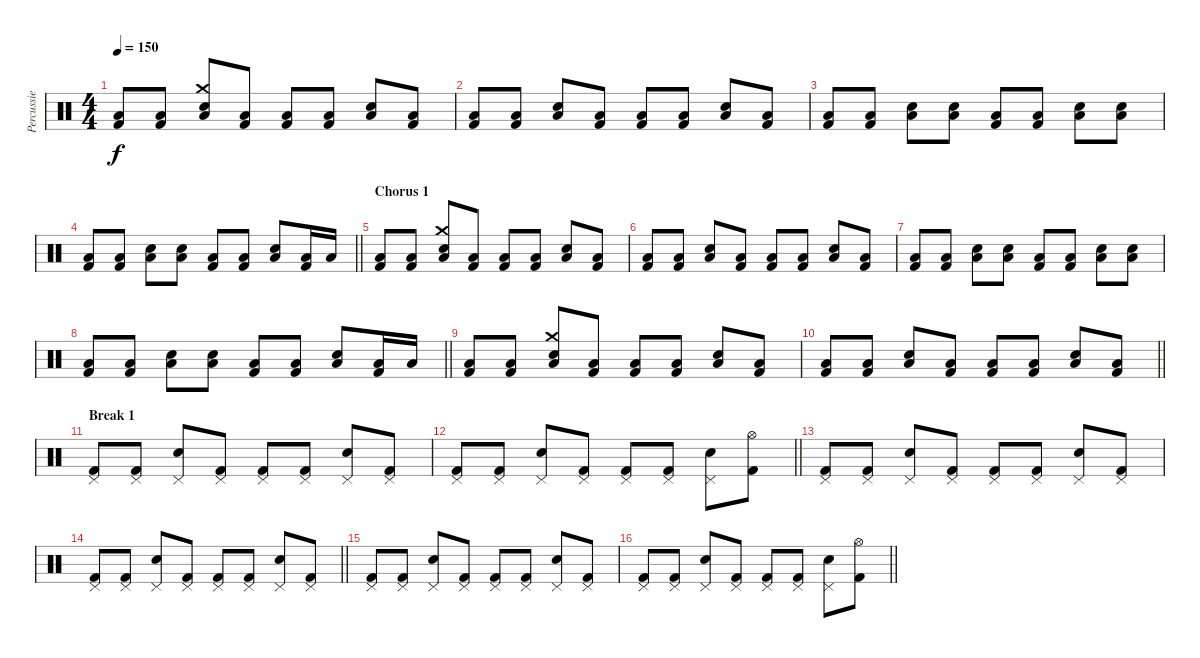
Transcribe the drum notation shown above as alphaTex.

\track ("Percussie" "Percussie") {instrument percussion}
\staff {score}
\articulation defaults
\ts (4 4)
\tempo 150
\clef neutral
\ks c
("Low Floor Tom (hit)" "Kick (hit) 2").8{dy f} ("Low Floor Tom (hit)" "Kick (hit) 2").8 ("Crash medium (hit)" "Snare (hit) 2" "Low Floor Tom (hit)").8 ("Low Floor Tom (hit)" "Kick (hit) 2").8 ("Low Floor Tom (hit)" "Kick (hit) 2").8 ("Low Floor Tom (hit)" "Kick (hit) 2").8 ("Snare (hit) 2" "Low Floor Tom (hit)").8 ("Low Floor Tom (hit)" "Kick (hit) 2").8 |
("Low Floor Tom (hit)" "Kick (hit) 2").8 ("Low Floor Tom (hit)" "Kick (hit) 2").8 ("Snare (hit) 2" "Low Floor Tom (hit)").8 ("Low Floor Tom (hit)" "Kick (hit) 2").8 ("Low Floor Tom (hit)" "Kick (hit) 2").8 ("Low Floor Tom (hit)" "Kick (hit) 2").8 ("Snare (hit) 2" "Low Floor Tom (hit)").8 ("Low Floor Tom (hit)" "Kick (hit) 2").8 |
("Low Floor Tom (hit)" "Kick (hit) 2").8 ("Low Floor Tom (hit)" "Kick (hit) 2").8 ("Snare (hit) 2" "Low Floor Tom (hit)").8 ("Snare (hit) 2" "Low Floor Tom (hit)").8 ("Low Floor Tom (hit)" "Kick (hit) 2").8 ("Low Floor Tom (hit)" "Kick (hit) 2").8 ("Snare (hit) 2" "Low Floor Tom (hit)").8 ("Snare (hit) 2" "Low Floor Tom (hit)").8 |
\barLineRight lightlight
("Low Floor Tom (hit)" "Kick (hit) 2").8 ("Low Floor Tom (hit)" "Kick (hit) 2").8 ("Snare (hit) 2" "Low Floor Tom (hit)").8 ("Snare (hit) 2" "Low Floor Tom (hit)").8 ("Low Floor Tom (hit)" "Kick (hit) 2").8 ("Low Floor Tom (hit)" "Kick (hit) 2").8 ("Snare (hit) 2" "Low Floor Tom (hit)").8 ("Low Floor Tom (hit)" "Kick (hit) 2").16 "Low Floor Tom (hit)".16 |
\section ("" "Chorus 1")
("Low Floor Tom (hit)" "Kick (hit) 2").8 ("Low Floor Tom (hit)" "Kick (hit) 2").8 ("Crash medium (hit)" "Snare (hit) 2" "Low Floor Tom (hit)").8 ("Low Floor Tom (hit)" "Kick (hit) 2").8 ("Low Floor Tom (hit)" "Kick (hit) 2").8 ("Low Floor Tom (hit)" "Kick (hit) 2").8 ("Snare (hit) 2" "Low Floor Tom (hit)").8 ("Low Floor Tom (hit)" "Kick (hit) 2").8 |
("Low Floor Tom (hit)" "Kick (hit) 2").8 ("Low Floor Tom (hit)" "Kick (hit) 2").8 ("Snare (hit) 2" "Low Floor Tom (hit)").8 ("Low Floor Tom (hit)" "Kick (hit) 2").8 ("Low Floor Tom (hit)" "Kick (hit) 2").8 ("Low Floor Tom (hit)" "Kick (hit) 2").8 ("Snare (hit) 2" "Low Floor Tom (hit)").8 ("Low Floor Tom (hit)" "Kick (hit) 2").8 |
("Low Floor Tom (hit)" "Kick (hit) 2").8 ("Low Floor Tom (hit)" "Kick (hit) 2").8 ("Snare (hit) 2" "Low Floor Tom (hit)").8 ("Snare (hit) 2" "Low Floor Tom (hit)").8 ("Low Floor Tom (hit)" "Kick (hit) 2").8 ("Low Floor Tom (hit)" "Kick (hit) 2").8 ("Snare (hit) 2" "Low Floor Tom (hit)").8 ("Snare (hit) 2" "Low Floor Tom (hit)").8 |
\barLineRight lightlight
("Low Floor Tom (hit)" "Kick (hit) 2").8 ("Low Floor Tom (hit)" "Kick (hit) 2").8 ("Snare (hit) 2" "Low Floor Tom (hit)").8 ("Snare (hit) 2" "Low Floor Tom (hit)").8 ("Low Floor Tom (hit)" "Kick (hit) 2").8 ("Low Floor Tom (hit)" "Kick (hit) 2").8 ("Snare (hit) 2" "Low Floor Tom (hit)").8 ("Low Floor Tom (hit)" "Kick (hit) 2").16 "Low Floor Tom (hit)".16 |
("Low Floor Tom (hit)" "Kick (hit) 2").8 ("Low Floor Tom (hit)" "Kick (hit) 2").8 ("Crash medium (hit)" "Snare (hit) 2" "Low Floor Tom (hit)").8 ("Low Floor Tom (hit)" "Kick (hit) 2").8 ("Low Floor Tom (hit)" "Kick (hit) 2").8 ("Low Floor Tom (hit)" "Kick (hit) 2").8 ("Snare (hit) 2" "Low Floor Tom (hit)").8 ("Low Floor Tom (hit)" "Kick (hit) 2").8 |
\barLineRight lightlight
("Low Floor Tom (hit)" "Kick (hit) 2").8 ("Low Floor Tom (hit)" "Kick (hit) 2").8 ("Snare (hit) 2" "Low Floor Tom (hit)").8 ("Low Floor Tom (hit)" "Kick (hit) 2").8 ("Low Floor Tom (hit)" "Kick (hit) 2").8 ("Low Floor Tom (hit)" "Kick (hit) 2").8 ("Snare (hit) 2" "Low Floor Tom (hit)").8 ("Low Floor Tom (hit)" "Kick (hit) 2").8 |
\section ("" "Break 1")
("Pedal Hi-Hat (hit)" "Kick (hit) 2").8 ("Pedal Hi-Hat (hit)" "Kick (hit) 2").8 ("Pedal Hi-Hat (hit)" "Snare (hit) 2").8 ("Pedal Hi-Hat (hit)" "Kick (hit) 2").8 ("Pedal Hi-Hat (hit)" "Kick (hit) 2").8 ("Pedal Hi-Hat (hit)" "Kick (hit) 2").8 ("Pedal Hi-Hat (hit)" "Snare (hit) 2").8 ("Pedal Hi-Hat (hit)" "Kick (hit) 2").8 |
\barLineRight lightlight
("Pedal Hi-Hat (hit)" "Kick (hit) 2").8 ("Pedal Hi-Hat (hit)" "Kick (hit) 2").8 ("Pedal Hi-Hat (hit)" "Snare (hit) 2").8 ("Pedal Hi-Hat (hit)" "Kick (hit) 2").8 ("Pedal Hi-Hat (hit)" "Kick (hit) 2").8 ("Pedal Hi-Hat (hit)" "Kick (hit) 2").8 ("Pedal Hi-Hat (hit)" "Snare (hit) 2").8 ("Hi-Hat (open)" "Kick (hit) 2").8 |
("Pedal Hi-Hat (hit)" "Kick (hit) 2").8 ("Pedal Hi-Hat (hit)" "Kick (hit) 2").8 ("Pedal Hi-Hat (hit)" "Snare (hit) 2").8 ("Pedal Hi-Hat (hit)" "Kick (hit) 2").8 ("Pedal Hi-Hat (hit)" "Kick (hit) 2").8 ("Pedal Hi-Hat (hit)" "Kick (hit) 2").8 ("Pedal Hi-Hat (hit)" "Snare (hit) 2").8 ("Pedal Hi-Hat (hit)" "Kick (hit) 2").8 |
\barLineRight lightlight
("Pedal Hi-Hat (hit)" "Kick (hit) 2").8 ("Pedal Hi-Hat (hit)" "Kick (hit) 2").8 ("Pedal Hi-Hat (hit)" "Snare (hit) 2").8 ("Pedal Hi-Hat (hit)" "Kick (hit) 2").8 ("Pedal Hi-Hat (hit)" "Kick (hit) 2").8 ("Pedal Hi-Hat (hit)" "Kick (hit) 2").8 ("Pedal Hi-Hat (hit)" "Snare (hit) 2").8 ("Pedal Hi-Hat (hit)" "Kick (hit) 2").8 |
("Pedal Hi-Hat (hit)" "Kick (hit) 2").8 ("Pedal Hi-Hat (hit)" "Kick (hit) 2").8 ("Pedal Hi-Hat (hit)" "Snare (hit) 2").8 ("Pedal Hi-Hat (hit)" "Kick (hit) 2").8 ("Pedal Hi-Hat (hit)" "Kick (hit) 2").8 ("Pedal Hi-Hat (hit)" "Kick (hit) 2").8 ("Pedal Hi-Hat (hit)" "Snare (hit) 2").8 ("Pedal Hi-Hat (hit)" "Kick (hit) 2").8 |
\barLineRight lightlight
("Pedal Hi-Hat (hit)" "Kick (hit) 2").8 ("Pedal Hi-Hat (hit)" "Kick (hit) 2").8 ("Pedal Hi-Hat (hit)" "Snare (hit) 2").8 ("Pedal Hi-Hat (hit)" "Kick (hit) 2").8 ("Pedal Hi-Hat (hit)" "Kick (hit) 2").8 ("Pedal Hi-Hat (hit)" "Kick (hit) 2").8 ("Pedal Hi-Hat (hit)" "Snare (hit) 2").8 ("Hi-Hat (open)" "Kick (hit) 2").8
